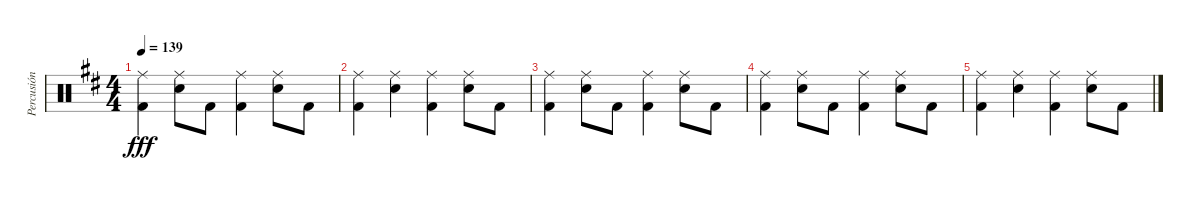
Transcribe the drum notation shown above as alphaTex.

\track ("Percusión" "Percusión") {instrument percussion}
\staff {score}
\articulation defaults
\ts (4 4)
\tempo 139
\clef neutral
\ks d
("Ride (middle)" "Kick (hit) 2").4{dy fff} ("Ride (middle)" "Electric Snare (hit)").8 "Kick (hit) 2".8 ("Ride (middle)" "Kick (hit) 2").4 ("Ride (middle)" "Electric Snare (hit)").8 "Kick (hit) 2".8 |
("Ride (middle)" "Kick (hit) 2").4 ("Ride (middle)" "Electric Snare (hit)").4 ("Ride (middle)" "Kick (hit) 2").4 ("Ride (middle)" "Electric Snare (hit)").8 "Kick (hit) 2".8 |
("Ride (middle)" "Kick (hit) 2").4 ("Ride (middle)" "Electric Snare (hit)").8 "Kick (hit) 2".8 ("Ride (middle)" "Kick (hit) 2").4 ("Ride (middle)" "Electric Snare (hit)").8 "Kick (hit) 2".8 |
("Ride (middle)" "Kick (hit) 2").4 ("Ride (middle)" "Electric Snare (hit)").8 "Kick (hit) 2".8 ("Ride (middle)" "Kick (hit) 2").4 ("Ride (middle)" "Electric Snare (hit)").8 "Kick (hit) 2".8 |
("Ride (middle)" "Kick (hit) 2").4 ("Ride (middle)" "Electric Snare (hit)").4 ("Ride (middle)" "Kick (hit) 2").4 ("Ride (middle)" "Electric Snare (hit)").8 "Kick (hit) 2".8
